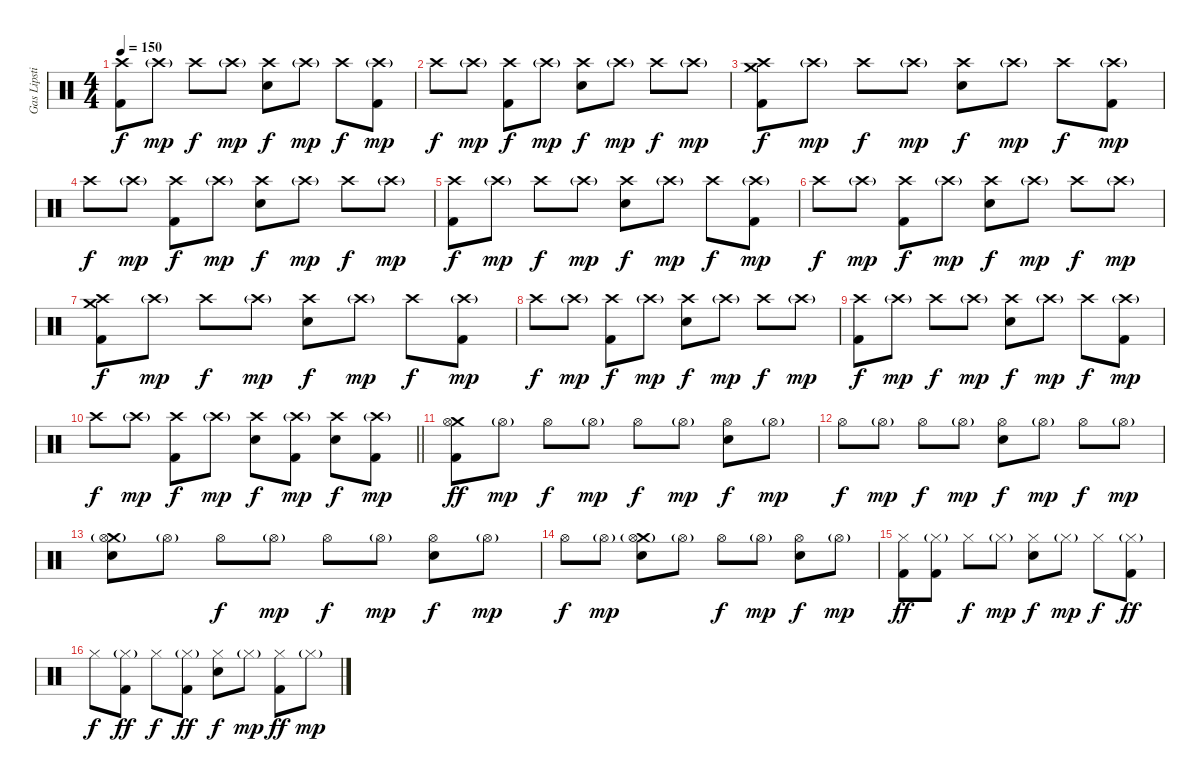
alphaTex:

\track ("Gas Lipstick" "Gas Lipsti") {instrument percussion}
\staff {score}
\articulation defaults
\ts (4 4)
\tempo 150
\clef neutral
\ks c
("Crash high (hit)" "Kick (hit) 2").8{dy f} "Crash high (hit)"{g}.8{dy mp} "Crash high (hit)".8{dy f} "Crash high (hit)"{g}.8{dy mp} ("Crash high (hit)" "Snare (hit) 2").8{dy f} "Crash high (hit)"{g}.8{dy mp} "Crash high (hit)".8{dy f} ("Crash high (hit)"{g} "Kick (hit) 2").8{dy mp} |
"Crash high (hit)".8{dy f} "Crash high (hit)"{g}.8{dy mp} ("Crash high (hit)" "Kick (hit) 2").8{dy f} "Crash high (hit)"{g}.8{dy mp} ("Crash high (hit)" "Snare (hit) 2").8{dy f} "Crash high (hit)"{g}.8{dy mp} "Crash high (hit)".8{dy f} "Crash high (hit)"{g}.8{dy mp} |
("Crash medium (hit)" "Crash high (hit)" "Kick (hit) 2").8{dy f} "Crash high (hit)"{g}.8{dy mp} "Crash high (hit)".8{dy f} "Crash high (hit)"{g}.8{dy mp} ("Crash high (hit)" "Snare (hit) 2").8{dy f} "Crash high (hit)"{g}.8{dy mp} "Crash high (hit)".8{dy f} ("Crash high (hit)"{g} "Kick (hit) 2").8{dy mp} |
"Crash high (hit)".8{dy f} "Crash high (hit)"{g}.8{dy mp} ("Crash high (hit)" "Kick (hit) 2").8{dy f} "Crash high (hit)"{g}.8{dy mp} ("Crash high (hit)" "Snare (hit) 2").8{dy f} "Crash high (hit)"{g}.8{dy mp} "Crash high (hit)".8{dy f} "Crash high (hit)"{g}.8{dy mp} |
("Crash high (hit)" "Kick (hit) 2").8{dy f} "Crash high (hit)"{g}.8{dy mp} "Crash high (hit)".8{dy f} "Crash high (hit)"{g}.8{dy mp} ("Crash high (hit)" "Snare (hit) 2").8{dy f} "Crash high (hit)"{g}.8{dy mp} "Crash high (hit)".8{dy f} ("Crash high (hit)"{g} "Kick (hit) 2").8{dy mp} |
"Crash high (hit)".8{dy f} "Crash high (hit)"{g}.8{dy mp} ("Crash high (hit)" "Kick (hit) 2").8{dy f} "Crash high (hit)"{g}.8{dy mp} ("Crash high (hit)" "Snare (hit) 2").8{dy f} "Crash high (hit)"{g}.8{dy mp} "Crash high (hit)".8{dy f} "Crash high (hit)"{g}.8{dy mp} |
("Crash medium (hit)" "Crash high (hit)" "Kick (hit) 2").8{dy f} "Crash high (hit)"{g}.8{dy mp} "Crash high (hit)".8{dy f} "Crash high (hit)"{g}.8{dy mp} ("Crash high (hit)" "Snare (hit) 2").8{dy f} "Crash high (hit)"{g}.8{dy mp} "Crash high (hit)".8{dy f} ("Crash high (hit)"{g} "Kick (hit) 2").8{dy mp} |
"Crash high (hit)".8{dy f} "Crash high (hit)"{g}.8{dy mp} ("Crash high (hit)" "Kick (hit) 2").8{dy f} "Crash high (hit)"{g}.8{dy mp} ("Crash high (hit)" "Snare (hit) 2").8{dy f} "Crash high (hit)"{g}.8{dy mp} "Crash high (hit)".8{dy f} "Crash high (hit)"{g}.8{dy mp} |
("Crash high (hit)" "Kick (hit) 2").8{dy f} "Crash high (hit)"{g}.8{dy mp} "Crash high (hit)".8{dy f} "Crash high (hit)"{g}.8{dy mp} ("Crash high (hit)" "Snare (hit) 2").8{dy f} "Crash high (hit)"{g}.8{dy mp} "Crash high (hit)".8{dy f} ("Crash high (hit)"{g} "Kick (hit) 2").8{dy mp} |
\barLineRight lightlight "Crash high (hit)".8{dy f} "Crash high (hit)"{g}.8{dy mp}
("Crash high (hit)" "Kick (hit) 2").8{dy f} "Crash high (hit)"{g}.8{dy mp} ("Crash high (hit)" "Snare (hit) 2").8{dy f} ("Crash high (hit)"{g} "Kick (hit) 2").8{dy mp} ("Crash high (hit)" "Snare (hit) 2").8{dy f} ("Crash high (hit)"{g} "Kick (hit) 2").8{dy mp} |
("Crash medium (hit)" "Hi-Hat (open)" "Kick (hit) 2").8{dy ff} "Hi-Hat (open)"{g}.8{dy mp} "Hi-Hat (open)".8{dy f} "Hi-Hat (open)"{g}.8{dy mp} "Hi-Hat (open)".8{dy f} "Hi-Hat (open)"{g}.8{dy mp} ("Hi-Hat (open)" "Snare (hit) 2").8{dy f} "Hi-Hat (open)"{g}.8{dy mp} |
"Hi-Hat (open)".8{dy f} "Hi-Hat (open)"{g}.8{dy mp} "Hi-Hat (open)".8{dy f} "Hi-Hat (open)"{g}.8{dy mp} ("Hi-Hat (open)" "Snare (hit) 2").8{dy f} "Hi-Hat (open)"{g}.8{dy mp} "Hi-Hat (open)".8{dy f} "Hi-Hat (open)"{g}.8{dy mp} |
("Crash medium (hit)"{g} "Hi-Hat (open)" "Snare (hit) 2").8 "Hi-Hat (open)"{g}.8 "Hi-Hat (open)".8{dy f} "Hi-Hat (open)"{g}.8{dy mp} "Hi-Hat (open)".8{dy f} "Hi-Hat (open)"{g}.8{dy mp} ("Hi-Hat (open)" "Snare (hit) 2").8{dy f} "Hi-Hat (open)"{g}.8{dy mp} |
"Hi-Hat (open)".8{dy f} "Hi-Hat (open)"{g}.8{dy mp} ("Crash medium (hit)"{g} "Hi-Hat (open)" "Snare (hit) 2").8 "Hi-Hat (open)"{g}.8 "Hi-Hat (open)".8{dy f} "Hi-Hat (open)"{g}.8{dy mp} ("Hi-Hat (open)" "Snare (hit) 2").8{dy f} "Hi-Hat (open)"{g}.8{dy mp} |
("Hi-Hat (closed)" "Kick (hit) 2").8{dy ff} ("Hi-Hat (closed)"{g} "Kick (hit) 2").8 "Hi-Hat (closed)".8{dy f} "Hi-Hat (closed)"{g}.8{dy mp} ("Hi-Hat (closed)" "Snare (hit) 2").8{dy f} "Hi-Hat (closed)"{g}.8{dy mp} "Hi-Hat (closed)".8{dy f} ("Hi-Hat (closed)"{g} "Kick (hit) 2").8{dy ff} |
"Hi-Hat (closed)".8{dy f} ("Hi-Hat (closed)"{g} "Kick (hit) 2").8{dy ff} "Hi-Hat (closed)".8{dy f} ("Hi-Hat (closed)"{g} "Kick (hit) 2").8{dy ff} ("Hi-Hat (closed)" "Snare (hit) 2").8{dy f} "Hi-Hat (closed)"{g}.8{dy mp} ("Hi-Hat (closed)" "Kick (hit) 2").8{dy ff} "Hi-Hat (closed)"{g}.8{dy mp}
